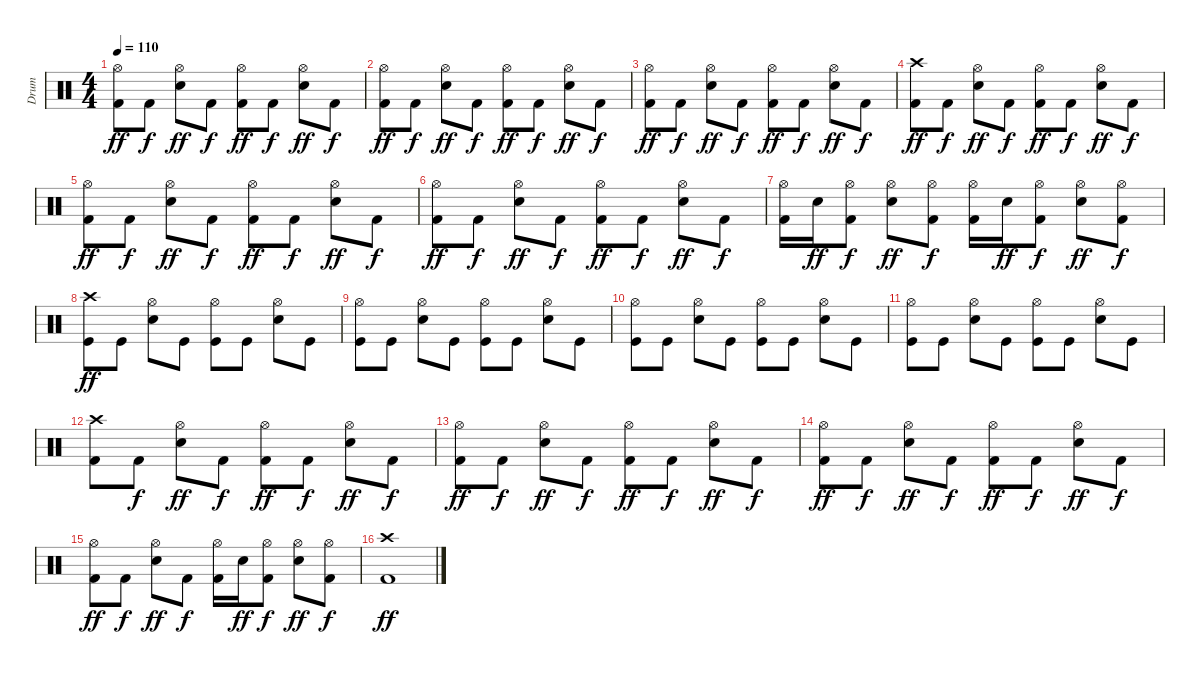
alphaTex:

\track ("Drum" "Drum") {instrument percussion}
\staff {score}
\articulation defaults
\ts (4 4)
\tempo 110
\clef neutral
\ks c
("Kick (hit) 2" "Hi-Hat (open)").8{dy ff} "Kick (hit) 2".8{dy f} ("Snare (hit) 2" "Hi-Hat (open)").8{dy ff} "Kick (hit) 2".8{dy f} ("Kick (hit) 2" "Hi-Hat (open)").8{dy ff} "Kick (hit) 2".8{dy f} ("Snare (hit) 2" "Hi-Hat (open)").8{dy ff} "Kick (hit) 2".8{dy f} |
("Kick (hit) 2" "Hi-Hat (open)").8{dy ff} "Kick (hit) 2".8{dy f} ("Snare (hit) 2" "Hi-Hat (open)").8{dy ff} "Kick (hit) 2".8{dy f} ("Kick (hit) 2" "Hi-Hat (open)").8{dy ff} "Kick (hit) 2".8{dy f} ("Snare (hit) 2" "Hi-Hat (open)").8{dy ff} "Kick (hit) 2".8{dy f} |
("Kick (hit) 2" "Hi-Hat (open)").8{dy ff} "Kick (hit) 2".8{dy f} ("Snare (hit) 2" "Hi-Hat (open)").8{dy ff} "Kick (hit) 2".8{dy f} ("Kick (hit) 2" "Hi-Hat (open)").8{dy ff} "Kick (hit) 2".8{dy f} ("Snare (hit) 2" "Hi-Hat (open)").8{dy ff} "Kick (hit) 2".8{dy f} |
("Kick (hit) 2" "Crash high (hit)").8{dy ff} "Kick (hit) 2".8{dy f} ("Snare (hit) 2" "Hi-Hat (open)").8{dy ff} "Kick (hit) 2".8{dy f} ("Kick (hit) 2" "Hi-Hat (open)").8{dy ff} "Kick (hit) 2".8{dy f} ("Snare (hit) 2" "Hi-Hat (open)").8{dy ff} "Kick (hit) 2".8{dy f} |
("Kick (hit) 2" "Hi-Hat (open)").8{dy ff} "Kick (hit) 2".8{dy f} ("Snare (hit) 2" "Hi-Hat (open)").8{dy ff} "Kick (hit) 2".8{dy f} ("Kick (hit) 2" "Hi-Hat (open)").8{dy ff} "Kick (hit) 2".8{dy f} ("Snare (hit) 2" "Hi-Hat (open)").8{dy ff} "Kick (hit) 2".8{dy f} |
("Kick (hit) 2" "Hi-Hat (open)").8{dy ff} "Kick (hit) 2".8{dy f} ("Snare (hit) 2" "Hi-Hat (open)").8{dy ff} "Kick (hit) 2".8{dy f} ("Kick (hit) 2" "Hi-Hat (open)").8{dy ff} "Kick (hit) 2".8{dy f} ("Snare (hit) 2" "Hi-Hat (open)").8{dy ff} "Kick (hit) 2".8{dy f} |
("Kick (hit) 2" "Hi-Hat (open)").16 "Snare (hit) 2".16{dy ff} ("Kick (hit) 2" "Hi-Hat (open)").8{dy f} ("Snare (hit) 2" "Hi-Hat (open)").8{dy ff} ("Kick (hit) 2" "Hi-Hat (open)").8{dy f} ("Kick (hit) 2" "Hi-Hat (open)").16 "Snare (hit) 2".16{dy ff} ("Kick (hit) 2" "Hi-Hat (open)").8{dy f} ("Snare (hit) 2" "Hi-Hat (open)").8{dy ff} ("Kick (hit) 2" "Hi-Hat (open)").8{dy f} |
("Kick (hit)" "Crash high (hit)").8{dy ff} "Kick (hit)".8 ("Snare (hit) 2" "Hi-Hat (open)").8 "Kick (hit)".8 ("Kick (hit)" "Hi-Hat (open)").8 "Kick (hit)".8 ("Snare (hit) 2" "Hi-Hat (open)").8 "Kick (hit)".8 |
("Kick (hit)" "Hi-Hat (open)").8 "Kick (hit)".8 ("Snare (hit) 2" "Hi-Hat (open)").8 "Kick (hit)".8 ("Kick (hit)" "Hi-Hat (open)").8 "Kick (hit)".8 ("Snare (hit) 2" "Hi-Hat (open)").8 "Kick (hit)".8 |
("Kick (hit)" "Hi-Hat (open)").8 "Kick (hit)".8 ("Snare (hit) 2" "Hi-Hat (open)").8 "Kick (hit)".8 ("Kick (hit)" "Hi-Hat (open)").8 "Kick (hit)".8 ("Snare (hit) 2" "Hi-Hat (open)").8 "Kick (hit)".8 |
("Kick (hit)" "Hi-Hat (open)").8 "Kick (hit)".8 ("Snare (hit) 2" "Hi-Hat (open)").8 "Kick (hit)".8 ("Kick (hit)" "Hi-Hat (open)").8 "Kick (hit)".8 ("Snare (hit) 2" "Hi-Hat (open)").8 "Kick (hit)".8 |
("Kick (hit) 2" "Crash high (hit)").8 "Kick (hit) 2".8{dy f} ("Snare (hit) 2" "Hi-Hat (open)").8{dy ff} "Kick (hit) 2".8{dy f} ("Kick (hit) 2" "Hi-Hat (open)").8{dy ff} "Kick (hit) 2".8{dy f} ("Snare (hit) 2" "Hi-Hat (open)").8{dy ff} "Kick (hit) 2".8{dy f} |
("Kick (hit) 2" "Hi-Hat (open)").8{dy ff} "Kick (hit) 2".8{dy f} ("Snare (hit) 2" "Hi-Hat (open)").8{dy ff} "Kick (hit) 2".8{dy f} ("Kick (hit) 2" "Hi-Hat (open)").8{dy ff} "Kick (hit) 2".8{dy f} ("Snare (hit) 2" "Hi-Hat (open)").8{dy ff} "Kick (hit) 2".8{dy f} |
("Kick (hit) 2" "Hi-Hat (open)").8{dy ff} "Kick (hit) 2".8{dy f} ("Snare (hit) 2" "Hi-Hat (open)").8{dy ff} "Kick (hit) 2".8{dy f} ("Kick (hit) 2" "Hi-Hat (open)").8{dy ff} "Kick (hit) 2".8{dy f} ("Snare (hit) 2" "Hi-Hat (open)").8{dy ff} "Kick (hit) 2".8{dy f} |
("Kick (hit) 2" "Hi-Hat (open)").8{dy ff} "Kick (hit) 2".8{dy f} ("Snare (hit) 2" "Hi-Hat (open)").8{dy ff} "Kick (hit) 2".8{dy f} ("Kick (hit) 2" "Hi-Hat (open)").16 "Snare (hit) 2".16{dy ff} ("Kick (hit) 2" "Hi-Hat (open)").8{dy f} ("Snare (hit) 2" "Hi-Hat (open)").8{dy ff} ("Kick (hit) 2" "Hi-Hat (open)").8{dy f} |
("Crash high (hit)" "Kick (hit) 2").1{dy ff}
